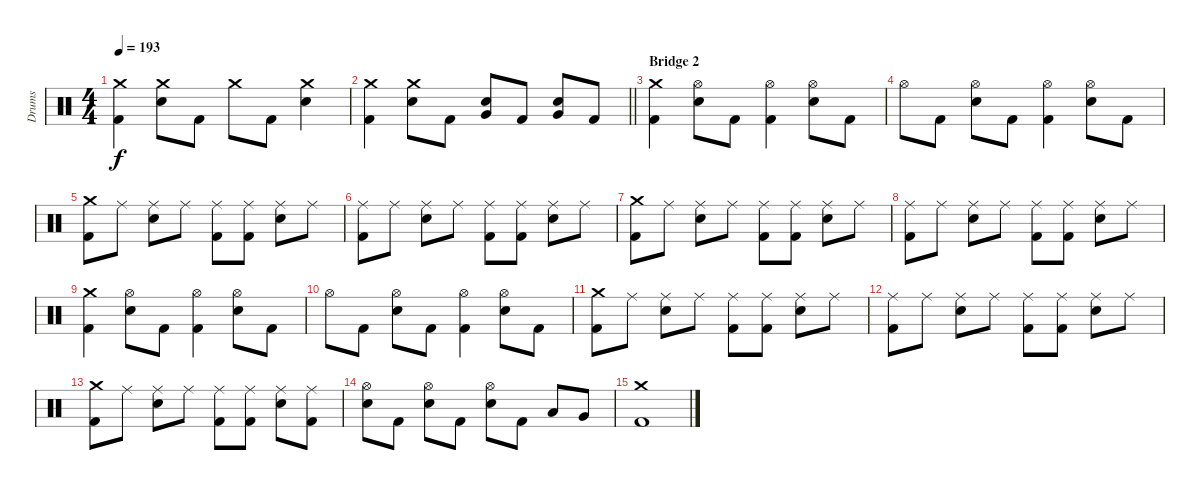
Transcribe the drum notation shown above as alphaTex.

\track ("Drums" "Drums") {instrument percussion}
\staff {score}
\articulation defaults
\ts (4 4)
\tempo 193
\clef neutral
\ks c
("Crash medium (hit)" "Kick (hit) 2").4{dy f} ("Crash medium (hit)" "Electric Snare (hit)").8 "Kick (hit) 2".8 "Crash medium (hit)".8 "Kick (hit) 2".8 ("Crash medium (hit)" "Electric Snare (hit)").4 |
\barLineRight lightlight
("Crash medium (hit)" "Kick (hit) 2").4 ("Crash medium (hit)" "Electric Snare (hit)").8 "Kick (hit) 2".8 ("Very Low Tom (hit)" "Electric Snare (hit)").8 "Kick (hit) 2".8 ("Very Low Tom (hit)" "Electric Snare (hit)").8 "Kick (hit) 2".8 |
\section ("" "Bridge 2")
("Crash medium (hit)" "Kick (hit) 2").4 ("Hi-Hat (open)" "Electric Snare (hit)").8 "Kick (hit) 2".8 ("Hi-Hat (open)" "Kick (hit) 2").4 ("Hi-Hat (open)" "Electric Snare (hit)").8 "Kick (hit) 2".8 |
"Hi-Hat (open)".8 "Kick (hit) 2".8 ("Hi-Hat (open)" "Electric Snare (hit)").8 "Kick (hit) 2".8 ("Hi-Hat (open)" "Kick (hit) 2").4 ("Hi-Hat (open)" "Electric Snare (hit)").8 "Kick (hit) 2".8 |
("Crash medium (hit)" "Kick (hit) 2").8 "Ride (middle)".8 ("Ride (middle)" "Electric Snare (hit)").8 "Ride (middle)".8 ("Ride (middle)" "Kick (hit) 2").8 ("Ride (middle)" "Kick (hit) 2").8 ("Ride (middle)" "Electric Snare (hit)").8 "Ride (middle)".8 |
("Ride (middle)" "Kick (hit) 2").8 "Ride (middle)".8 ("Ride (middle)" "Electric Snare (hit)").8 "Ride (middle)".8 ("Ride (middle)" "Kick (hit) 2").8 ("Ride (middle)" "Kick (hit) 2").8 ("Ride (middle)" "Electric Snare (hit)").8 "Ride (middle)".8 |
("Crash medium (hit)" "Kick (hit) 2").8 "Ride (middle)".8 ("Ride (middle)" "Electric Snare (hit)").8 "Ride (middle)".8 ("Ride (middle)" "Kick (hit) 2").8 ("Ride (middle)" "Kick (hit) 2").8 ("Ride (middle)" "Electric Snare (hit)").8 "Ride (middle)".8 |
("Ride (middle)" "Kick (hit) 2").8 "Ride (middle)".8 ("Ride (middle)" "Electric Snare (hit)").8 "Ride (middle)".8 ("Ride (middle)" "Kick (hit) 2").8 ("Ride (middle)" "Kick (hit) 2").8 ("Ride (middle)" "Electric Snare (hit)").8 "Ride (middle)".8 |
("Crash medium (hit)" "Kick (hit) 2").4 ("Hi-Hat (open)" "Electric Snare (hit)").8 "Kick (hit) 2".8 ("Hi-Hat (open)" "Kick (hit) 2").4 ("Hi-Hat (open)" "Electric Snare (hit)").8 "Kick (hit) 2".8 |
"Hi-Hat (open)".8 "Kick (hit) 2".8 ("Hi-Hat (open)" "Electric Snare (hit)").8 "Kick (hit) 2".8 ("Hi-Hat (open)" "Kick (hit) 2").4 ("Hi-Hat (open)" "Electric Snare (hit)").8 "Kick (hit) 2".8 |
("Crash medium (hit)" "Kick (hit) 2").8 "Ride (middle)".8 ("Ride (middle)" "Electric Snare (hit)").8 "Ride (middle)".8 ("Ride (middle)" "Kick (hit) 2").8 ("Ride (middle)" "Kick (hit) 2").8 ("Ride (middle)" "Electric Snare (hit)").8 "Ride (middle)".8 |
("Ride (middle)" "Kick (hit) 2").8 "Ride (middle)".8 ("Ride (middle)" "Electric Snare (hit)").8 "Ride (middle)".8 ("Ride (middle)" "Kick (hit) 2").8 ("Ride (middle)" "Kick (hit) 2").8 ("Ride (middle)" "Electric Snare (hit)").8 "Ride (middle)".8 |
("Crash medium (hit)" "Kick (hit) 2").8 "Ride (middle)".8 ("Ride (middle)" "Electric Snare (hit)").8 "Ride (middle)".8 ("Ride (middle)" "Kick (hit) 2").8 ("Ride (middle)" "Kick (hit) 2").8 ("Ride (middle)" "Electric Snare (hit)").8 ("Ride (middle)" "Kick (hit) 2").8 |
("Hi-Hat (open)" "Electric Snare (hit)").8 "Kick (hit) 2".8 ("Hi-Hat (open)" "Electric Snare (hit)").8 "Kick (hit) 2".8 ("Hi-Hat (open)" "Electric Snare (hit)").8 "Kick (hit) 2".8 "Low Tom (hit)".8 "Very Low Tom (hit)".8 |
("Crash medium (hit)" "Kick (hit) 2").1
